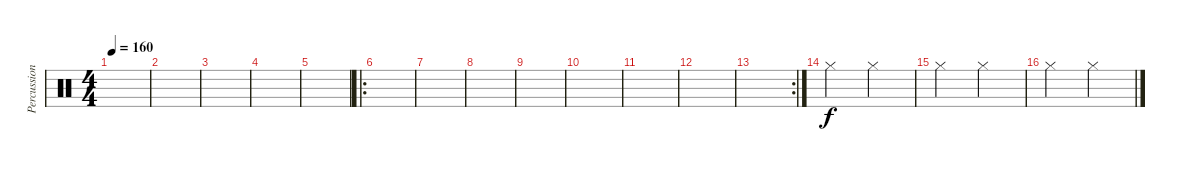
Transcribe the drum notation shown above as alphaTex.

\track ("Percussion" "Percussion") {instrument percussion}
\staff {score}
\articulation defaults
\ts (4 4)
\tempo 160
\clef neutral
\ks c
|
|
|
|
|
\ro
|
|
|
|
|
|
|
\rc 2
|
"Hi-Hat (closed)".2 "Hi-Hat (closed)".2 |
"Hi-Hat (closed)".2 "Hi-Hat (closed)".2 |
"Hi-Hat (closed)".2 "Hi-Hat (closed)".2
